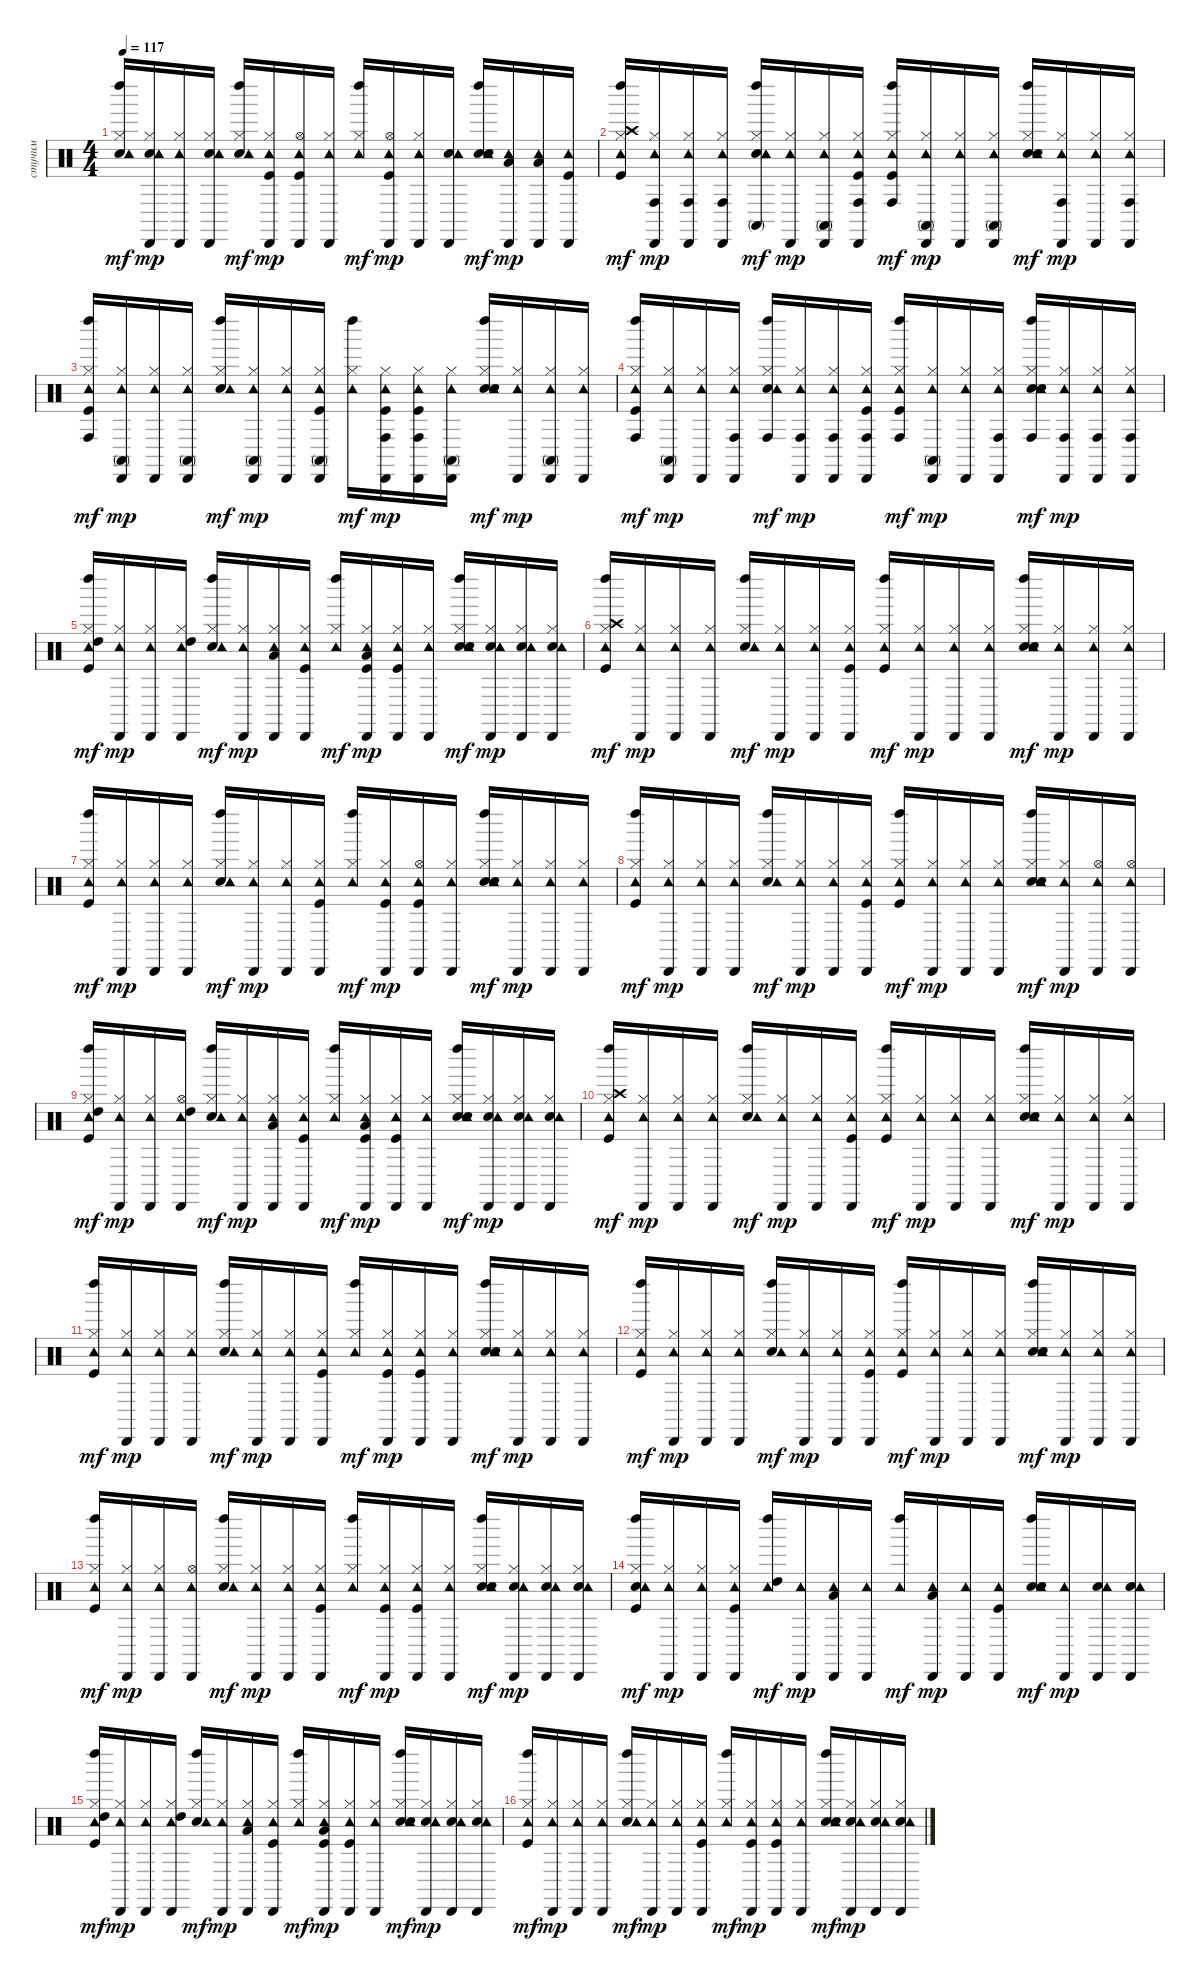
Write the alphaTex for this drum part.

\track ("стучим" "стучим") {instrument percussion}
\staff {score}
\articulation defaults
\ts (4 4)
\tempo 117
\clef neutral
\ks c
("Snare (hit) 2" "Hi-Hat (closed)" "Tambourine (hit)" "Left Maraca (hit)").16{dy mf} ("Snare (hit) 2" "Hi-Hat (closed)" "Tambourine (hit)" "Cabasa (hit)").16{dy mp} ("Hi-Hat (closed)" "Tambourine (hit)" "Cabasa (hit)").16 ("Snare (hit) 2" "Hi-Hat (closed)" "Tambourine (hit)" "Cabasa (hit)").16 ("Snare (hit) 2" "Hi-Hat (closed)" "Tambourine (hit)" "Left Maraca (hit)").16{dy mf} ("Kick (hit)" "Hi-Hat (closed)" "Tambourine (hit)" "Cabasa (hit)").16{dy mp} ("Kick (hit)" "Hi-Hat (open)" "Tambourine (hit)" "Cabasa (hit)").16 ("Hi-Hat (closed)" "Tambourine (hit)" "Cabasa (hit)").16 ("Hi-Hat (closed)" "Tambourine (hit)" "Left Maraca (hit)").16{dy mf} ("Kick (hit)" "Hi-Hat (open)" "Tambourine (hit)" "Cabasa (hit)").16{dy mp} ("Hi-Hat (closed)" "Tambourine (hit)" "Cabasa (hit)").16 ("Snare (hit) 2" "Tambourine (hit)" "Cabasa (hit)").16 ("Snare (hit) 2" "Tambourine (hit)" "Hand Clap (hit)" "Left Maraca (hit)").16{dy mf} ("Low Floor Tom (hit)" "Tambourine (hit)" "Cabasa (hit)").16{dy mp} ("Low Floor Tom (hit)" "Tambourine (hit)" "Cabasa (hit)").16 ("Kick (hit)" "Tambourine (hit)" "Cabasa (hit)").16 |
("Kick (hit)" "Hi-Hat (closed)" "Crash high (hit)" "Tambourine (hit)" "Left Maraca (hit)").16{dy mf} ("Hi-Hat (closed)" "Conga high (hit)" "Tambourine (hit)" "Cabasa (hit)").16{dy mp} ("Hi-Hat (closed)" "Conga high (hit)" "Tambourine (hit)" "Cabasa (hit)").16 ("Hi-Hat (closed)" "Conga high (hit)" "Tambourine (hit)" "Cabasa (hit)").16 ("Snare (hit) 2" "Hi-Hat (closed)" "Conga high (mute)" "Tambourine (hit)" "Left Maraca (hit)").16{dy mf} ("Hi-Hat (closed)" "Tambourine (hit)" "Cabasa (hit)").16{dy mp} ("Hi-Hat (closed)" "Conga high (mute)" "Tambourine (hit)" "Cabasa (hit)").16 ("Kick (hit)" "Hi-Hat (closed)" "Conga high (hit)" "Tambourine (hit)" "Cabasa (hit)").16 ("Kick (hit)" "Hi-Hat (closed)" "Conga high (hit)" "Tambourine (hit)" "Left Maraca (hit)").16{dy mf} ("Hi-Hat (closed)" "Conga high (mute)" "Tambourine (hit)" "Cabasa (hit)").16{dy mp} ("Hi-Hat (closed)" "Tambourine (hit)" "Cabasa (hit)").16 ("Hi-Hat (closed)" "Conga high (mute)" "Tambourine (hit)" "Cabasa (hit)").16 ("Snare (hit) 2" "Hi-Hat (closed)" "Tambourine (hit)" "Hand Clap (hit)" "Left Maraca (hit)").16{dy mf} ("Hi-Hat (closed)" "Conga high (hit)" "Tambourine (hit)" "Cabasa (hit)").16{dy mp} ("Hi-Hat (closed)" "Tambourine (hit)" "Cabasa (hit)").16 ("Hi-Hat (closed)" "Conga high (hit)" "Tambourine (hit)" "Cabasa (hit)").16 |
("Kick (hit)" "Hi-Hat (closed)" "Conga high (hit)" "Tambourine (hit)" "Left Maraca (hit)").16{dy mf} ("Hi-Hat (closed)" "Conga high (mute)" "Tambourine (hit)" "Cabasa (hit)").16{dy mp} ("Hi-Hat (closed)" "Tambourine (hit)" "Cabasa (hit)").16 ("Hi-Hat (closed)" "Conga high (mute)" "Tambourine (hit)" "Cabasa (hit)").16 ("Snare (hit) 2" "Hi-Hat (closed)" "Tambourine (hit)" "Left Maraca (hit)").16{dy mf} ("Hi-Hat (closed)" "Conga high (mute)" "Tambourine (hit)" "Cabasa (hit)").16{dy mp} ("Hi-Hat (closed)" "Tambourine (hit)" "Cabasa (hit)").16 ("Kick (hit)" "Hi-Hat (closed)" "Conga high (mute)" "Tambourine (hit)" "Cabasa (hit)").16 ("Hi-Hat (closed)" "Tambourine (hit)" "Left Maraca (hit)").16{dy mf} ("Kick (hit)" "Hi-Hat (closed)" "Conga high (hit)" "Tambourine (hit)" "Cabasa (hit)").16{dy mp} ("Kick (hit)" "Hi-Hat (closed)" "Conga high (hit)" "Tambourine (hit)" "Cabasa (hit)").16 ("Hi-Hat (closed)" "Conga high (mute)" "Tambourine (hit)" "Cabasa (hit)").16 ("Snare (hit) 2" "Hi-Hat (closed)" "Tambourine (hit)" "Hand Clap (hit)" "Left Maraca (hit)").16{dy mf} ("Hi-Hat (closed)" "Tambourine (hit)" "Cabasa (hit)").16{dy mp} ("Hi-Hat (closed)" "Conga high (mute)" "Tambourine (hit)" "Cabasa (hit)").16 ("Hi-Hat (closed)" "Tambourine (hit)" "Cabasa (hit)").16 |
("Kick (hit)" "Hi-Hat (closed)" "Conga high (hit)" "Tambourine (hit)" "Left Maraca (hit)").16{dy mf} ("Hi-Hat (closed)" "Conga high (mute)" "Tambourine (hit)" "Cabasa (hit)").16{dy mp} ("Hi-Hat (closed)" "Tambourine (hit)" "Cabasa (hit)").16 ("Hi-Hat (closed)" "Conga high (hit)" "Tambourine (hit)" "Cabasa (hit)").16 ("Snare (hit) 2" "Hi-Hat (closed)" "Conga high (hit)" "Tambourine (hit)" "Left Maraca (hit)").16{dy mf} ("Hi-Hat (closed)" "Conga high (hit)" "Tambourine (hit)" "Cabasa (hit)").16{dy mp} ("Hi-Hat (closed)" "Conga high (hit)" "Tambourine (hit)" "Cabasa (hit)").16 ("Kick (hit)" "Hi-Hat (closed)" "Conga high (hit)" "Tambourine (hit)" "Cabasa (hit)").16 ("Kick (hit)" "Hi-Hat (closed)" "Conga high (hit)" "Tambourine (hit)" "Left Maraca (hit)").16{dy mf} ("Hi-Hat (closed)" "Conga high (mute)" "Tambourine (hit)" "Cabasa (hit)").16{dy mp} ("Hi-Hat (closed)" "Tambourine (hit)" "Cabasa (hit)").16 ("Hi-Hat (closed)" "Conga high (hit)" "Tambourine (hit)" "Cabasa (hit)").16 ("Snare (hit) 2" "Hi-Hat (closed)" "Conga high (hit)" "Tambourine (hit)" "Hand Clap (hit)" "Left Maraca (hit)").16{dy mf} ("Hi-Hat (closed)" "Conga high (hit)" "Tambourine (hit)" "Cabasa (hit)").16{dy mp} ("Hi-Hat (closed)" "Conga high (hit)" "Tambourine (hit)" "Cabasa (hit)").16 ("Hi-Hat (closed)" "Conga high (hit)" "Tambourine (hit)" "Cabasa (hit)").16 |
("Kick (hit)" "Hi-Hat (closed)" "High Tom (hit)" "Tambourine (hit)" "Left Maraca (hit)").16{dy mf} ("Hi-Hat (closed)" "Tambourine (hit)" "Cabasa (hit)").16{dy mp} ("Hi-Hat (closed)" "Tambourine (hit)" "Cabasa (hit)").16 ("Hi-Hat (closed)" "High Tom (hit)" "Tambourine (hit)" "Cabasa (hit)").16 ("Snare (hit) 2" "Hi-Hat (closed)" "Tambourine (hit)" "Left Maraca (hit)").16{dy mf} ("Hi-Hat (closed)" "Tambourine (hit)" "Cabasa (hit)").16{dy mp} ("Hi-Hat (closed)" "Low Tom (hit)" "Tambourine (hit)" "Cabasa (hit)").16 ("Kick (hit)" "Hi-Hat (closed)" "Tambourine (hit)" "Cabasa (hit)").16 ("Hi-Hat (closed)" "Tambourine (hit)" "Left Maraca (hit)").16{dy mf} ("Kick (hit)" "Hi-Hat (closed)" "Low Floor Tom (hit)" "Tambourine (hit)" "Cabasa (hit)").16{dy mp} ("Kick (hit)" "Hi-Hat (closed)" "Tambourine (hit)" "Cabasa (hit)").16 ("Hi-Hat (closed)" "Tambourine (hit)" "Cabasa (hit)").16 ("Snare (hit) 2" "Hi-Hat (closed)" "Tambourine (hit)" "Hand Clap (hit)" "Left Maraca (hit)").16{dy mf} ("Snare (hit) 2" "Hi-Hat (closed)" "Tambourine (hit)" "Cabasa (hit)").16{dy mp} ("Snare (hit) 2" "Hi-Hat (closed)" "Tambourine (hit)" "Cabasa (hit)").16 ("Snare (hit) 2" "Hi-Hat (closed)" "Tambourine (hit)" "Cabasa (hit)").16 |
("Kick (hit)" "Hi-Hat (closed)" "Crash high (hit)" "Tambourine (hit)" "Left Maraca (hit)").16{dy mf} ("Hi-Hat (closed)" "Tambourine (hit)" "Cabasa (hit)").16{dy mp} ("Hi-Hat (closed)" "Tambourine (hit)" "Cabasa (hit)").16 ("Hi-Hat (closed)" "Tambourine (hit)" "Cabasa (hit)").16 ("Snare (hit) 2" "Hi-Hat (closed)" "Tambourine (hit)" "Left Maraca (hit)").16{dy mf} ("Hi-Hat (closed)" "Tambourine (hit)" "Cabasa (hit)").16{dy mp} ("Hi-Hat (closed)" "Tambourine (hit)" "Cabasa (hit)").16 ("Kick (hit)" "Hi-Hat (closed)" "Tambourine (hit)" "Cabasa (hit)").16 ("Kick (hit)" "Hi-Hat (closed)" "Tambourine (hit)" "Left Maraca (hit)").16{dy mf} ("Hi-Hat (closed)" "Tambourine (hit)" "Cabasa (hit)").16{dy mp} ("Hi-Hat (closed)" "Tambourine (hit)" "Cabasa (hit)").16 ("Hi-Hat (closed)" "Tambourine (hit)" "Cabasa (hit)").16 ("Snare (hit) 2" "Hi-Hat (closed)" "Tambourine (hit)" "Hand Clap (hit)" "Left Maraca (hit)").16{dy mf} ("Hi-Hat (closed)" "Tambourine (hit)" "Cabasa (hit)").16{dy mp} ("Hi-Hat (closed)" "Tambourine (hit)" "Cabasa (hit)").16 ("Hi-Hat (closed)" "Tambourine (hit)" "Cabasa (hit)").16 |
("Kick (hit)" "Hi-Hat (closed)" "Tambourine (hit)" "Left Maraca (hit)").16{dy mf} ("Hi-Hat (closed)" "Tambourine (hit)" "Cabasa (hit)").16{dy mp} ("Hi-Hat (closed)" "Tambourine (hit)" "Cabasa (hit)").16 ("Hi-Hat (closed)" "Tambourine (hit)" "Cabasa (hit)").16 ("Snare (hit) 2" "Hi-Hat (closed)" "Tambourine (hit)" "Left Maraca (hit)").16{dy mf} ("Hi-Hat (closed)" "Tambourine (hit)" "Cabasa (hit)").16{dy mp} ("Hi-Hat (closed)" "Tambourine (hit)" "Cabasa (hit)").16 ("Kick (hit)" "Hi-Hat (closed)" "Tambourine (hit)" "Cabasa (hit)").16 ("Hi-Hat (closed)" "Tambourine (hit)" "Left Maraca (hit)").16{dy mf} ("Kick (hit)" "Hi-Hat (closed)" "Tambourine (hit)" "Cabasa (hit)").16{dy mp} ("Kick (hit)" "Hi-Hat (open)" "Tambourine (hit)" "Cabasa (hit)").16 ("Hi-Hat (closed)" "Tambourine (hit)" "Cabasa (hit)").16 ("Snare (hit) 2" "Hi-Hat (closed)" "Tambourine (hit)" "Hand Clap (hit)" "Left Maraca (hit)").16{dy mf} ("Hi-Hat (closed)" "Tambourine (hit)" "Cabasa (hit)").16{dy mp} ("Hi-Hat (closed)" "Tambourine (hit)" "Cabasa (hit)").16 ("Hi-Hat (closed)" "Tambourine (hit)" "Cabasa (hit)").16 |
("Kick (hit)" "Hi-Hat (closed)" "Tambourine (hit)" "Left Maraca (hit)").16{dy mf} ("Hi-Hat (closed)" "Tambourine (hit)" "Cabasa (hit)").16{dy mp} ("Hi-Hat (closed)" "Tambourine (hit)" "Cabasa (hit)").16 ("Hi-Hat (closed)" "Tambourine (hit)" "Cabasa (hit)").16 ("Snare (hit) 2" "Hi-Hat (closed)" "Tambourine (hit)" "Left Maraca (hit)").16{dy mf} ("Hi-Hat (closed)" "Tambourine (hit)" "Cabasa (hit)").16{dy mp} ("Hi-Hat (closed)" "Tambourine (hit)" "Cabasa (hit)").16 ("Kick (hit)" "Hi-Hat (closed)" "Tambourine (hit)" "Cabasa (hit)").16 ("Kick (hit)" "Hi-Hat (closed)" "Tambourine (hit)" "Left Maraca (hit)").16{dy mf} ("Hi-Hat (closed)" "Tambourine (hit)" "Cabasa (hit)").16{dy mp} ("Hi-Hat (closed)" "Tambourine (hit)" "Cabasa (hit)").16 ("Hi-Hat (closed)" "Tambourine (hit)" "Cabasa (hit)").16 ("Snare (hit) 2" "Hi-Hat (closed)" "Tambourine (hit)" "Hand Clap (hit)" "Left Maraca (hit)").16{dy mf} ("Hi-Hat (closed)" "Tambourine (hit)" "Cabasa (hit)").16{dy mp} ("Hi-Hat (open)" "Tambourine (hit)" "Cabasa (hit)").16 ("Hi-Hat (open)" "Tambourine (hit)" "Cabasa (hit)").16 |
("Kick (hit)" "Hi-Hat (closed)" "High Tom (hit)" "Tambourine (hit)" "Left Maraca (hit)").16{dy mf} ("Hi-Hat (closed)" "Tambourine (hit)" "Cabasa (hit)").16{dy mp} ("Hi-Hat (closed)" "Tambourine (hit)" "Cabasa (hit)").16 ("Hi-Hat (open)" "High Tom (hit)" "Tambourine (hit)" "Cabasa (hit)").16 ("Snare (hit) 2" "Hi-Hat (closed)" "Tambourine (hit)" "Left Maraca (hit)").16{dy mf} ("Hi-Hat (closed)" "Tambourine (hit)" "Cabasa (hit)").16{dy mp} ("Hi-Hat (closed)" "Low Tom (hit)" "Tambourine (hit)" "Cabasa (hit)").16 ("Kick (hit)" "Hi-Hat (closed)" "Tambourine (hit)" "Cabasa (hit)").16 ("Hi-Hat (closed)" "Tambourine (hit)" "Left Maraca (hit)").16{dy mf} ("Kick (hit)" "Hi-Hat (closed)" "Low Floor Tom (hit)" "Tambourine (hit)" "Cabasa (hit)").16{dy mp} ("Kick (hit)" "Hi-Hat (closed)" "Tambourine (hit)" "Cabasa (hit)").16 ("Hi-Hat (closed)" "Tambourine (hit)" "Cabasa (hit)").16 ("Snare (hit) 2" "Hi-Hat (closed)" "Tambourine (hit)" "Hand Clap (hit)" "Left Maraca (hit)").16{dy mf} ("Snare (hit) 2" "Hi-Hat (closed)" "Tambourine (hit)" "Cabasa (hit)").16{dy mp} ("Snare (hit) 2" "Hi-Hat (closed)" "Tambourine (hit)" "Cabasa (hit)").16 ("Snare (hit) 2" "Hi-Hat (closed)" "Tambourine (hit)" "Cabasa (hit)").16 |
("Kick (hit)" "Hi-Hat (closed)" "Crash high (hit)" "Tambourine (hit)" "Left Maraca (hit)").16{dy mf} ("Hi-Hat (closed)" "Tambourine (hit)" "Cabasa (hit)").16{dy mp} ("Hi-Hat (closed)" "Tambourine (hit)" "Cabasa (hit)").16 ("Hi-Hat (closed)" "Tambourine (hit)" "Cabasa (hit)").16 ("Snare (hit) 2" "Hi-Hat (closed)" "Tambourine (hit)" "Left Maraca (hit)").16{dy mf} ("Hi-Hat (closed)" "Tambourine (hit)" "Cabasa (hit)").16{dy mp} ("Hi-Hat (closed)" "Tambourine (hit)" "Cabasa (hit)").16 ("Kick (hit)" "Hi-Hat (closed)" "Tambourine (hit)" "Cabasa (hit)").16 ("Kick (hit)" "Hi-Hat (closed)" "Tambourine (hit)" "Left Maraca (hit)").16{dy mf} ("Hi-Hat (closed)" "Tambourine (hit)" "Cabasa (hit)").16{dy mp} ("Hi-Hat (closed)" "Tambourine (hit)" "Cabasa (hit)").16 ("Hi-Hat (closed)" "Tambourine (hit)" "Cabasa (hit)").16 ("Snare (hit) 2" "Hi-Hat (closed)" "Tambourine (hit)" "Hand Clap (hit)" "Left Maraca (hit)").16{dy mf} ("Hi-Hat (closed)" "Tambourine (hit)" "Cabasa (hit)").16{dy mp} ("Hi-Hat (closed)" "Tambourine (hit)" "Cabasa (hit)").16 ("Hi-Hat (closed)" "Tambourine (hit)" "Cabasa (hit)").16 |
("Kick (hit)" "Hi-Hat (closed)" "Tambourine (hit)" "Left Maraca (hit)").16{dy mf} ("Hi-Hat (closed)" "Tambourine (hit)" "Cabasa (hit)").16{dy mp} ("Hi-Hat (closed)" "Tambourine (hit)" "Cabasa (hit)").16 ("Hi-Hat (closed)" "Tambourine (hit)" "Cabasa (hit)").16 ("Snare (hit) 2" "Hi-Hat (closed)" "Tambourine (hit)" "Left Maraca (hit)").16{dy mf} ("Hi-Hat (closed)" "Tambourine (hit)" "Cabasa (hit)").16{dy mp} ("Hi-Hat (closed)" "Tambourine (hit)" "Cabasa (hit)").16 ("Kick (hit)" "Hi-Hat (closed)" "Tambourine (hit)" "Cabasa (hit)").16 ("Hi-Hat (closed)" "Tambourine (hit)" "Left Maraca (hit)").16{dy mf} ("Kick (hit)" "Hi-Hat (closed)" "Tambourine (hit)" "Cabasa (hit)").16{dy mp} ("Kick (hit)" "Hi-Hat (closed)" "Tambourine (hit)" "Cabasa (hit)").16 ("Hi-Hat (closed)" "Tambourine (hit)" "Cabasa (hit)").16 ("Snare (hit) 2" "Hi-Hat (closed)" "Tambourine (hit)" "Hand Clap (hit)" "Left Maraca (hit)").16{dy mf} ("Hi-Hat (closed)" "Tambourine (hit)" "Cabasa (hit)").16{dy mp} ("Hi-Hat (closed)" "Tambourine (hit)" "Cabasa (hit)").16 ("Hi-Hat (closed)" "Tambourine (hit)" "Cabasa (hit)").16 |
("Kick (hit)" "Hi-Hat (closed)" "Tambourine (hit)" "Left Maraca (hit)").16{dy mf} ("Hi-Hat (closed)" "Tambourine (hit)" "Cabasa (hit)").16{dy mp} ("Hi-Hat (closed)" "Tambourine (hit)" "Cabasa (hit)").16 ("Hi-Hat (closed)" "Tambourine (hit)" "Cabasa (hit)").16 ("Snare (hit) 2" "Hi-Hat (closed)" "Tambourine (hit)" "Left Maraca (hit)").16{dy mf} ("Hi-Hat (closed)" "Tambourine (hit)" "Cabasa (hit)").16{dy mp} ("Hi-Hat (closed)" "Tambourine (hit)" "Cabasa (hit)").16 ("Kick (hit)" "Hi-Hat (closed)" "Tambourine (hit)" "Cabasa (hit)").16 ("Kick (hit)" "Hi-Hat (closed)" "Tambourine (hit)" "Left Maraca (hit)").16{dy mf} ("Hi-Hat (closed)" "Tambourine (hit)" "Cabasa (hit)").16{dy mp} ("Hi-Hat (closed)" "Tambourine (hit)" "Cabasa (hit)").16 ("Hi-Hat (closed)" "Tambourine (hit)" "Cabasa (hit)").16 ("Snare (hit) 2" "Hi-Hat (closed)" "Tambourine (hit)" "Hand Clap (hit)" "Left Maraca (hit)").16{dy mf} ("Hi-Hat (closed)" "Tambourine (hit)" "Cabasa (hit)").16{dy mp} ("Hi-Hat (closed)" "Tambourine (hit)" "Cabasa (hit)").16 ("Hi-Hat (closed)" "Tambourine (hit)" "Cabasa (hit)").16 |
("Kick (hit)" "Hi-Hat (closed)" "Tambourine (hit)" "Left Maraca (hit)").16{dy mf} ("Hi-Hat (closed)" "Tambourine (hit)" "Cabasa (hit)").16{dy mp} ("Hi-Hat (closed)" "Tambourine (hit)" "Cabasa (hit)").16 ("Hi-Hat (open)" "Tambourine (hit)" "Cabasa (hit)").16 ("Snare (hit) 2" "Hi-Hat (closed)" "Tambourine (hit)" "Left Maraca (hit)").16{dy mf} ("Hi-Hat (closed)" "Tambourine (hit)" "Cabasa (hit)").16{dy mp} ("Hi-Hat (closed)" "Tambourine (hit)" "Cabasa (hit)").16 ("Kick (hit)" "Hi-Hat (closed)" "Tambourine (hit)" "Cabasa (hit)").16 ("Hi-Hat (closed)" "Tambourine (hit)" "Left Maraca (hit)").16{dy mf} ("Kick (hit)" "Hi-Hat (closed)" "Tambourine (hit)" "Cabasa (hit)").16{dy mp} ("Kick (hit)" "Hi-Hat (closed)" "Tambourine (hit)" "Cabasa (hit)").16 ("Hi-Hat (closed)" "Tambourine (hit)" "Cabasa (hit)").16 ("Snare (hit) 2" "Hi-Hat (closed)" "Tambourine (hit)" "Hand Clap (hit)" "Left Maraca (hit)").16{dy mf} ("Snare (hit) 2" "Hi-Hat (closed)" "Tambourine (hit)" "Cabasa (hit)").16{dy mp} ("Snare (hit) 2" "Hi-Hat (closed)" "Tambourine (hit)" "Cabasa (hit)").16 ("Snare (hit) 2" "Hi-Hat (closed)" "Tambourine (hit)" "Cabasa (hit)").16 |
("Kick (hit)" "Snare (hit) 2" "Hi-Hat (closed)" "Tambourine (hit)" "Left Maraca (hit)").16{dy mf} ("Hi-Hat (closed)" "Tambourine (hit)" "Cabasa (hit)").16{dy mp} ("Hi-Hat (closed)" "Tambourine (hit)" "Cabasa (hit)").16 ("Kick (hit)" "Hi-Hat (closed)" "Tambourine (hit)" "Cabasa (hit)").16 ("High Tom (hit)" "Tambourine (hit)" "Left Maraca (hit)").16{dy mf} ("Tambourine (hit)" "Cabasa (hit)").16{dy mp} ("Low Tom (hit)" "Tambourine (hit)" "Cabasa (hit)").16 ("Tambourine (hit)" "Cabasa (hit)").16 ("Tambourine (hit)" "Left Maraca (hit)").16{dy mf} ("Low Floor Tom (hit)" "Tambourine (hit)" "Cabasa (hit)").16{dy mp} ("Tambourine (hit)" "Cabasa (hit)").16 ("Kick (hit)" "Tambourine (hit)" "Cabasa (hit)").16 ("Snare (hit) 2" "Tambourine (hit)" "Hand Clap (hit)" "Left Maraca (hit)").16{dy mf} ("Tambourine (hit)" "Cabasa (hit)").16{dy mp} ("Snare (hit) 2" "Tambourine (hit)" "Cabasa (hit)").16 ("Snare (hit) 2" "Tambourine (hit)" "Cabasa (hit)").16 |
("Kick (hit)" "Hi-Hat (closed)" "High Tom (hit)" "Tambourine (hit)" "Left Maraca (hit)").16{dy mf} ("Hi-Hat (closed)" "Tambourine (hit)" "Cabasa (hit)").16{dy mp} ("Hi-Hat (closed)" "Tambourine (hit)" "Cabasa (hit)").16 ("Hi-Hat (closed)" "High Tom (hit)" "Tambourine (hit)" "Cabasa (hit)").16 ("Snare (hit) 2" "Hi-Hat (closed)" "Tambourine (hit)" "Left Maraca (hit)").16{dy mf} ("Hi-Hat (closed)" "Tambourine (hit)" "Cabasa (hit)").16{dy mp} ("Hi-Hat (closed)" "Low Tom (hit)" "Tambourine (hit)" "Cabasa (hit)").16 ("Kick (hit)" "Hi-Hat (closed)" "Tambourine (hit)" "Cabasa (hit)").16 ("Hi-Hat (closed)" "Tambourine (hit)" "Left Maraca (hit)").16{dy mf} ("Kick (hit)" "Hi-Hat (closed)" "Low Floor Tom (hit)" "Tambourine (hit)" "Cabasa (hit)").16{dy mp} ("Kick (hit)" "Hi-Hat (closed)" "Tambourine (hit)" "Cabasa (hit)").16 ("Hi-Hat (closed)" "Tambourine (hit)" "Cabasa (hit)").16 ("Snare (hit) 2" "Hi-Hat (closed)" "Tambourine (hit)" "Hand Clap (hit)" "Left Maraca (hit)").16{dy mf} ("Snare (hit) 2" "Hi-Hat (closed)" "Tambourine (hit)" "Cabasa (hit)").16{dy mp} ("Snare (hit) 2" "Hi-Hat (closed)" "Tambourine (hit)" "Cabasa (hit)").16 ("Snare (hit) 2" "Hi-Hat (closed)" "Tambourine (hit)" "Cabasa (hit)").16 |
("Kick (hit)" "Hi-Hat (closed)" "Tambourine (hit)" "Left Maraca (hit)").16{dy mf} ("Hi-Hat (closed)" "Tambourine (hit)" "Cabasa (hit)").16{dy mp} ("Hi-Hat (closed)" "Tambourine (hit)" "Cabasa (hit)").16 ("Hi-Hat (closed)" "Tambourine (hit)" "Cabasa (hit)").16 ("Snare (hit) 2" "Hi-Hat (closed)" "Tambourine (hit)" "Left Maraca (hit)").16{dy mf} ("Hi-Hat (closed)" "Tambourine (hit)" "Cabasa (hit)").16{dy mp} ("Hi-Hat (closed)" "Tambourine (hit)" "Cabasa (hit)").16 ("Kick (hit)" "Hi-Hat (closed)" "Tambourine (hit)" "Cabasa (hit)").16 ("Hi-Hat (closed)" "Tambourine (hit)" "Left Maraca (hit)").16{dy mf} ("Kick (hit)" "Hi-Hat (closed)" "Tambourine (hit)" "Cabasa (hit)").16{dy mp} ("Kick (hit)" "Hi-Hat (closed)" "Tambourine (hit)" "Cabasa (hit)").16 ("Hi-Hat (closed)" "Tambourine (hit)" "Cabasa (hit)").16 ("Snare (hit) 2" "Hi-Hat (closed)" "Tambourine (hit)" "Hand Clap (hit)" "Left Maraca (hit)").16{dy mf} ("Snare (hit) 2" "Hi-Hat (closed)" "Tambourine (hit)" "Cabasa (hit)").16{dy mp} ("Snare (hit) 2" "Hi-Hat (closed)" "Tambourine (hit)" "Cabasa (hit)").16 ("Snare (hit) 2" "Hi-Hat (closed)" "Tambourine (hit)" "Cabasa (hit)").16
